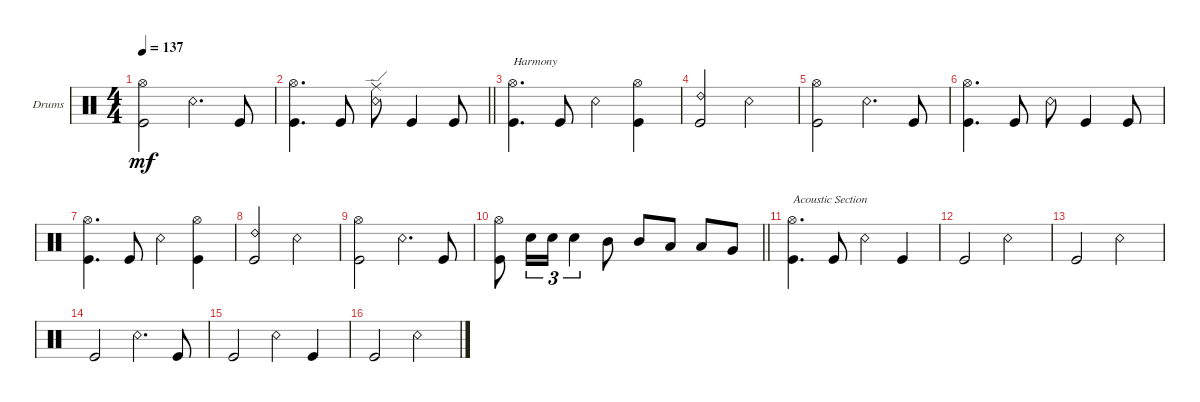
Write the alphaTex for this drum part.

\defaultSystemsLayout 4
\bracketExtendMode groupsimilarinstruments
\firstSystemTrackNameOrientation horizontal
\otherSystemsTrackNameOrientation horizontal
\track ("Drums" "Drums") {instrument percussion}
\staff {score}
\articulation defaults
\ts (4 4)
\tempo 137
\clef neutral
\scale
0.333333
\ks c
("Kick (hit)" "Hi-Hat (open)").2{dy mf} "Snare (rim shot)".4{d} "Kick (hit)".8 |
\scale
0.333333
\barLineRight lightlight
("Kick (hit)" "Hi-Hat (open)").4{d} "Kick (hit)".8 ("Snare (rim shot)" "Ride (edge)").8 "Kick (hit)".4 "Kick (hit)".8 |
\scale
0.333333 ("Kick (hit)" "Hi-Hat (open)").4{d txt "Harmony"} "Kick (hit)".8 "Snare (rim shot)".4 ("Kick (hit)" "Hi-Hat (open)").4 |
\scale
0.333333 ("Kick (hit)" "Ride (bell) 2").2 "Snare (rim shot)".2 |
\scale
0.333333 ("Kick (hit)" "Hi-Hat (open)").2 "Snare (rim shot)".4{d} "Kick (hit)".8 |
\scale
0.333333 ("Kick (hit)" "Hi-Hat (open)").4{d} "Kick (hit)".8 "Snare (rim shot)".8 "Kick (hit)".4 "Kick (hit)".8 |
\scale
0.333333 ("Kick (hit)" "Hi-Hat (open)").4{d} "Kick (hit)".8 "Snare (rim shot)".4 ("Kick (hit)" "Hi-Hat (open)").4 |
\scale
0.333333 ("Kick (hit)" "Ride (bell) 2").2 "Snare (rim shot)".2 |
\scale
0.333333 ("Kick (hit)" "Hi-Hat (open)").2 "Snare (rim shot)".4{d} "Kick (hit)".8 |
\scale
0.333333
\barLineRight lightlight
("Kick (hit)" "Hi-Hat (open)").8 "Snare (hit) 2".16{tu (3 2)} "Snare (hit) 2".16{tu (3 2)} "Snare (hit) 2".4{tu (3 2)} "Mid Tom (hit)".8 "Mid Tom (hit)".8 "Low Tom (hit)".8 "Low Tom (hit)".8 "Very Low Tom (hit)".8 |
\scale
0.333333 ("Kick (hit)" "Hi-Hat (open)").4{d txt "Acoustic Section"} "Kick (hit)".8 "Snare (rim shot)".4 "Kick (hit)".4 |
\scale
0.333333 "Kick (hit)".2 "Snare (rim shot)".2 |
\scale
0.333333 "Kick (hit)".2 "Snare (rim shot)".2 |
\scale
0.333333 "Kick (hit)".2 "Snare (rim shot)".4{d} "Kick (hit)".8 |
\scale
0.333333 "Kick (hit)".2 "Snare (rim shot)".4 "Kick (hit)".4 |
\scale
0.333333 "Kick (hit)".2 "Snare (rim shot)".2
